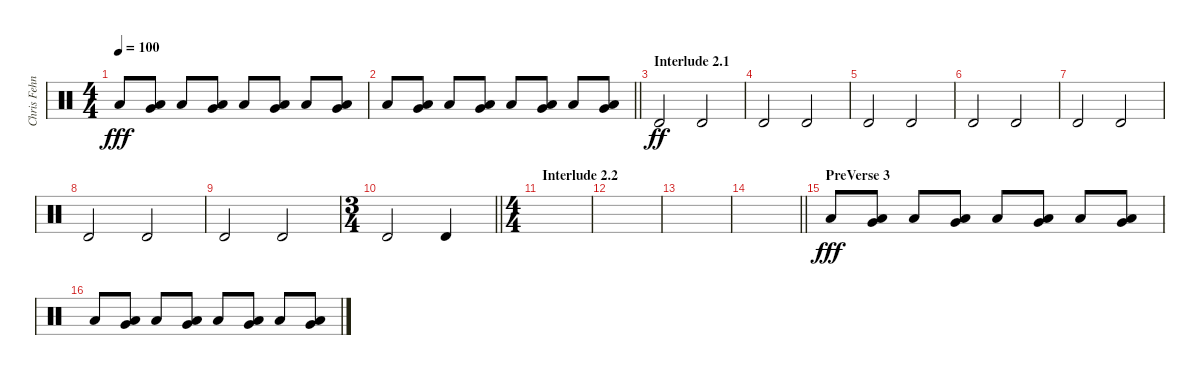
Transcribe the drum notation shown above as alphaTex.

\track ("Chris Fehn" "Chris Fehn") {instrument percussion}
\staff {score}
\articulation defaults
\ts (4 4)
\tempo 100
\clef neutral
\ks c "Low Floor Tom (hit)".8{dy fff}
("Very Low Tom (hit)" "Low Floor Tom (hit)").8 "Low Floor Tom (hit)".8 ("Very Low Tom (hit)" "Low Floor Tom (hit)").8 "Low Floor Tom (hit)".8 ("Very Low Tom (hit)" "Low Floor Tom (hit)").8 "Low Floor Tom (hit)".8 ("Very Low Tom (hit)" "Low Floor Tom (hit)").8 |
\barLineRight lightlight "Low Floor Tom (hit)".8
("Very Low Tom (hit)" "Low Floor Tom (hit)").8 "Low Floor Tom (hit)".8 ("Very Low Tom (hit)" "Low Floor Tom (hit)").8 "Low Floor Tom (hit)".8 ("Very Low Tom (hit)" "Low Floor Tom (hit)").8 "Low Floor Tom (hit)".8 ("Very Low Tom (hit)" "Low Floor Tom (hit)").8 |
\section ("" "Interlude 2.1")
"Timbale high (hit)".2{dy ff} "Timbale high (hit)".2 |
"Timbale high (hit)".2 "Timbale high (hit)".2 |
"Timbale high (hit)".2 "Timbale high (hit)".2 |
"Timbale high (hit)".2 "Timbale high (hit)".2 |
"Timbale high (hit)".2 "Timbale high (hit)".2 |
"Timbale high (hit)".2 "Timbale high (hit)".2 |
"Timbale high (hit)".2 "Timbale high (hit)".2 |
\ts (3 4)
\barLineRight lightlight "Timbale high (hit)".2 "Timbale high (hit)".4
|
\ts (4 4)
\section ("" "Interlude 2.2")
|
|
|
\barLineRight lightlight
|
\section ("" "PreVerse 3")
"Low Floor Tom (hit)".8{dy fff} ("Very Low Tom (hit)" "Low Floor Tom (hit)").8 "Low Floor Tom (hit)".8 ("Very Low Tom (hit)" "Low Floor Tom (hit)").8 "Low Floor Tom (hit)".8 ("Very Low Tom (hit)" "Low Floor Tom (hit)").8 "Low Floor Tom (hit)".8 ("Very Low Tom (hit)" "Low Floor Tom (hit)").8 |
"Low Floor Tom (hit)".8 ("Very Low Tom (hit)" "Low Floor Tom (hit)").8 "Low Floor Tom (hit)".8 ("Very Low Tom (hit)" "Low Floor Tom (hit)").8 "Low Floor Tom (hit)".8 ("Very Low Tom (hit)" "Low Floor Tom (hit)").8 "Low Floor Tom (hit)".8 ("Very Low Tom (hit)" "Low Floor Tom (hit)").8
